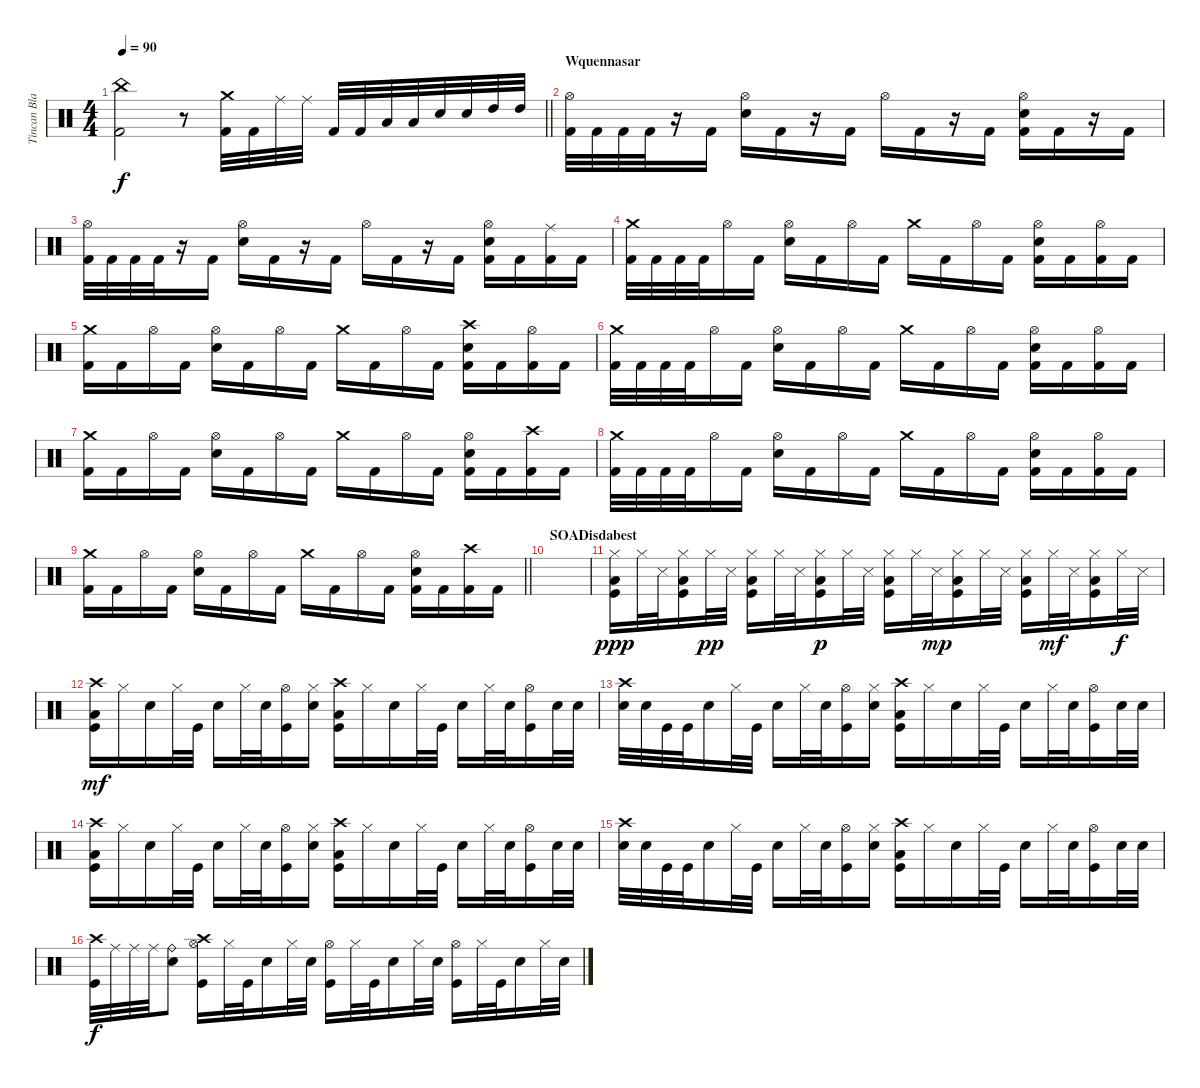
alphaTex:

\track ("Tincan Blaster" "Tincan Bla") {instrument percussion}
\staff {score}
\articulation defaults
\ts (4 4)
\tempo 90
\clef neutral
\barLineRight lightlight
\ks c
("China (hit)" "Kick (hit) 2").2{dy f} r.8 ("Crash medium (hit)" "Kick (hit) 2").32 "Kick (hit) 2".32 "Ride (middle)".32 "Ride (middle)".32 "Kick (hit) 2".32 "Kick (hit) 2".32 "Low Tom (hit)".32 "Low Tom (hit)".32 "Electric Snare (hit)".32 "Electric Snare (hit)".32 "High Tom (hit)".32 "High Tom (hit)".32 |
\section ("" "Wquennasar")
("Hi-Hat (open)" "Kick (hit) 2").32 "Kick (hit) 2".32 "Kick (hit) 2".32 "Kick (hit) 2".32 r.16 "Kick (hit) 2".16 ("Hi-Hat (open)" "Electric Snare (hit)").16 "Kick (hit) 2".16 r.16 "Kick (hit) 2".16 "Hi-Hat (open)".16 "Kick (hit) 2".16 r.16 "Kick (hit) 2".16 ("Hi-Hat (open)" "Electric Snare (hit)" "Kick (hit) 2").16 "Kick (hit) 2".16 r.16 "Kick (hit) 2".16 |
("Hi-Hat (open)" "Kick (hit) 2").32 "Kick (hit) 2".32 "Kick (hit) 2".32 "Kick (hit) 2".32 r.16 "Kick (hit) 2".16 ("Hi-Hat (open)" "Electric Snare (hit)").16 "Kick (hit) 2".16 r.16 "Kick (hit) 2".16 "Hi-Hat (open)".16 "Kick (hit) 2".16 r.16 "Kick (hit) 2".16 ("Hi-Hat (open)" "Electric Snare (hit)" "Kick (hit) 2").16 "Kick (hit) 2".16 ("Ride (middle)" "Kick (hit) 2").16 "Kick (hit) 2".16 |
("Crash medium (hit)" "Kick (hit) 2").32 "Kick (hit) 2".32 "Kick (hit) 2".32 "Kick (hit) 2".32 "Hi-Hat (open)".16 "Kick (hit) 2".16 ("Hi-Hat (open)" "Electric Snare (hit)").16 "Kick (hit) 2".16 "Hi-Hat (open)".16 "Kick (hit) 2".16 "Crash medium (hit)".16 "Kick (hit) 2".16 "Hi-Hat (open)".16 "Kick (hit) 2".16 ("Hi-Hat (open)" "Electric Snare (hit)" "Kick (hit) 2").16 "Kick (hit) 2".16 ("Hi-Hat (open)" "Kick (hit) 2").16 "Kick (hit) 2".16 |
("Crash medium (hit)" "Kick (hit) 2").16 "Kick (hit) 2".16 "Hi-Hat (open)".16 "Kick (hit) 2".16 ("Hi-Hat (open)" "Electric Snare (hit)").16 "Kick (hit) 2".16 "Hi-Hat (open)".16 "Kick (hit) 2".16 "Crash medium (hit)".16 "Kick (hit) 2".16 "Hi-Hat (open)".16 "Kick (hit) 2".16 ("Crash high (hit)" "Electric Snare (hit)" "Kick (hit) 2").16 "Kick (hit) 2".16 ("Hi-Hat (open)" "Kick (hit) 2").16 "Kick (hit) 2".16 |
("Crash medium (hit)" "Kick (hit) 2").32 "Kick (hit) 2".32 "Kick (hit) 2".32 "Kick (hit) 2".32 "Hi-Hat (open)".16 "Kick (hit) 2".16 ("Hi-Hat (open)" "Electric Snare (hit)").16 "Kick (hit) 2".16 "Hi-Hat (open)".16 "Kick (hit) 2".16 "Crash medium (hit)".16 "Kick (hit) 2".16 "Hi-Hat (open)".16 "Kick (hit) 2".16 ("Hi-Hat (open)" "Electric Snare (hit)" "Kick (hit) 2").16 "Kick (hit) 2".16 ("Hi-Hat (open)" "Kick (hit) 2").16 "Kick (hit) 2".16 |
("Crash medium (hit)" "Kick (hit) 2").16 "Kick (hit) 2".16 "Hi-Hat (open)".16 "Kick (hit) 2".16 ("Hi-Hat (open)" "Electric Snare (hit)").16 "Kick (hit) 2".16 "Hi-Hat (open)".16 "Kick (hit) 2".16 "Crash medium (hit)".16 "Kick (hit) 2".16 "Hi-Hat (open)".16 "Kick (hit) 2".16 ("Hi-Hat (open)" "Electric Snare (hit)" "Kick (hit) 2").16 "Kick (hit) 2".16 ("Crash high (hit)" "Kick (hit) 2").16 "Kick (hit) 2".16 |
("Crash medium (hit)" "Kick (hit) 2").32 "Kick (hit) 2".32 "Kick (hit) 2".32 "Kick (hit) 2".32 "Hi-Hat (open)".16 "Kick (hit) 2".16 ("Hi-Hat (open)" "Electric Snare (hit)").16 "Kick (hit) 2".16 "Hi-Hat (open)".16 "Kick (hit) 2".16 "Crash medium (hit)".16 "Kick (hit) 2".16 "Hi-Hat (open)".16 "Kick (hit) 2".16 ("Hi-Hat (open)" "Electric Snare (hit)" "Kick (hit) 2").16 "Kick (hit) 2".16 ("Hi-Hat (open)" "Kick (hit) 2").16 "Kick (hit) 2".16 |
\barLineRight lightlight
("Crash medium (hit)" "Kick (hit) 2").16 "Kick (hit) 2".16 "Hi-Hat (open)".16 "Kick (hit) 2".16 ("Hi-Hat (open)" "Electric Snare (hit)").16 "Kick (hit) 2".16 "Hi-Hat (open)".16 "Kick (hit) 2".16 "Crash medium (hit)".16 "Kick (hit) 2".16 "Hi-Hat (open)".16 "Kick (hit) 2".16 ("Hi-Hat (open)" "Electric Snare (hit)" "Kick (hit) 2").16 "Kick (hit) 2".16 ("Crash high (hit)" "Kick (hit) 2").16 "Kick (hit) 2".16 |
\section ("" "SOADisdabest")
|
("Hi-Hat (closed)" "Low Floor Tom (hit)" "Kick (hit)").16{dy ppp} "Hi-Hat (closed)".32 "Snare (side stick) 3".32 ("Hi-Hat (closed)" "Low Floor Tom (hit)" "Kick (hit)").16 "Hi-Hat (closed)".32{dy pp} "Snare (side stick) 3".32 ("Hi-Hat (closed)" "Low Floor Tom (hit)" "Kick (hit)").16 "Hi-Hat (closed)".32 "Snare (side stick) 3".32 ("Hi-Hat (closed)" "Low Floor Tom (hit)" "Kick (hit)").16{dy p} "Hi-Hat (closed)".32 "Snare (side stick) 3".32 ("Hi-Hat (closed)" "Low Floor Tom (hit)" "Kick (hit)").16 "Hi-Hat (closed)".32 "Snare (side stick) 3".32{dy mp} ("Hi-Hat (closed)" "Low Floor Tom (hit)" "Kick (hit)").16 "Hi-Hat (closed)".32 "Snare (side stick) 3".32 ("Hi-Hat (closed)" "Low Floor Tom (hit)" "Kick (hit)").16 "Hi-Hat (closed)".32{dy mf} "Snare (side stick) 3".32 ("Hi-Hat (closed)" "Low Floor Tom (hit)" "Kick (hit)").16 "Hi-Hat (closed)".32{dy f} "Snare (side stick) 3".32 |
("Crash high (hit)" "Low Floor Tom (hit)" "Kick (hit)").16{dy mf} "Hi-Hat (closed)".16 "Electric Snare (hit)".16 "Hi-Hat (closed)".32 "Kick (hit)".32 "Electric Snare (hit)".16 "Hi-Hat (closed)".32 "Electric Snare (hit)".32 ("Hi-Hat (open)" "Kick (hit)").16 ("Hi-Hat (closed)" "Electric Snare (hit)").16 ("Crash high (hit)" "Low Floor Tom (hit)" "Kick (hit)").16 "Hi-Hat (closed)".16 "Electric Snare (hit)".16 "Hi-Hat (closed)".32 "Kick (hit)".32 "Electric Snare (hit)".16 "Hi-Hat (closed)".32 "Electric Snare (hit)".32 ("Hi-Hat (open)" "Kick (hit)").16 "Electric Snare (hit)".32 "Electric Snare (hit)".32 |
("Crash high (hit)" "Electric Snare (hit)").32 "Electric Snare (hit)".32 "Kick (hit)".32 "Kick (hit)".32 "Electric Snare (hit)".16 "Hi-Hat (closed)".32 "Kick (hit)".32 "Electric Snare (hit)".16 "Hi-Hat (closed)".32 "Electric Snare (hit)".32 ("Hi-Hat (open)" "Kick (hit)").16 ("Hi-Hat (closed)" "Electric Snare (hit)").16 ("Crash high (hit)" "Low Floor Tom (hit)" "Kick (hit)").16 "Hi-Hat (closed)".16 "Electric Snare (hit)".16 "Hi-Hat (closed)".32 "Kick (hit)".32 "Electric Snare (hit)".16 "Hi-Hat (closed)".32 "Electric Snare (hit)".32 ("Hi-Hat (open)" "Kick (hit)").16 "Electric Snare (hit)".32 "Electric Snare (hit)".32 |
("Crash high (hit)" "Low Floor Tom (hit)" "Kick (hit)").16 "Hi-Hat (closed)".16 "Electric Snare (hit)".16 "Hi-Hat (closed)".32 "Kick (hit)".32 "Electric Snare (hit)".16 "Hi-Hat (closed)".32 "Electric Snare (hit)".32 ("Hi-Hat (open)" "Kick (hit)").16 ("Hi-Hat (closed)" "Electric Snare (hit)").16 ("Crash high (hit)" "Low Floor Tom (hit)" "Kick (hit)").16 "Hi-Hat (closed)".16 "Electric Snare (hit)".16 "Hi-Hat (closed)".32 "Kick (hit)".32 "Electric Snare (hit)".16 "Hi-Hat (closed)".32 "Electric Snare (hit)".32 ("Hi-Hat (open)" "Kick (hit)").16 "Electric Snare (hit)".32 "Electric Snare (hit)".32 |
("Crash high (hit)" "Electric Snare (hit)").32 "Electric Snare (hit)".32 "Kick (hit)".32 "Kick (hit)".32 "Electric Snare (hit)".16 "Hi-Hat (closed)".32 "Kick (hit)".32 "Electric Snare (hit)".16 "Hi-Hat (closed)".32 "Electric Snare (hit)".32 ("Hi-Hat (open)" "Kick (hit)").16 ("Hi-Hat (closed)" "Electric Snare (hit)").16 ("Crash high (hit)" "Low Floor Tom (hit)" "Kick (hit)").16 "Hi-Hat (closed)".16 "Electric Snare (hit)".16 "Hi-Hat (closed)".32 "Kick (hit)".32 "Electric Snare (hit)".16 "Hi-Hat (closed)".32 "Electric Snare (hit)".32 ("Hi-Hat (open)" "Kick (hit)").16 "Electric Snare (hit)".32 "Electric Snare (hit)".32 |
("Crash high (hit)" "Kick (hit)").32{dy f} "Ride (middle)".32 "Ride (middle)".32 "Ride (middle)".32 ("Ride (bell)" "Electric Snare (hit)").8 ("Crash high (hit)" "Hi-Hat (open)" "Kick (hit)").16 "Hi-Hat (closed)".32 "Kick (hit)".32 "Electric Snare (hit)".16 "Hi-Hat (closed)".32 "Electric Snare (hit)".32 ("Hi-Hat (open)" "Kick (hit)").16 "Hi-Hat (closed)".32 "Kick (hit)".32 "Electric Snare (hit)".16 "Hi-Hat (closed)".32 "Electric Snare (hit)".32 ("Hi-Hat (open)" "Kick (hit)").16 "Hi-Hat (closed)".32 "Kick (hit)".32 "Electric Snare (hit)".16 "Hi-Hat (closed)".32 "Electric Snare (hit)".32
